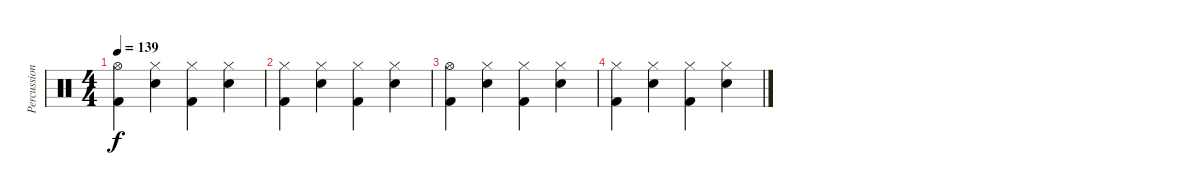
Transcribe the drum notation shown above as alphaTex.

\track ("Percussion" "Percussion") {instrument percussion}
\staff {score}
\articulation defaults
\ts (4 4)
\tempo 139
\clef neutral
\ks c
("Hi-Hat (open)" "Kick (hit) 2").4{dy f} ("Hi-Hat (closed)" "Electric Snare (hit)").4 ("Hi-Hat (closed)" "Kick (hit) 2").4 ("Hi-Hat (closed)" "Electric Snare (hit)").4 |
("Hi-Hat (closed)" "Kick (hit) 2").4 ("Hi-Hat (closed)" "Electric Snare (hit)").4 ("Hi-Hat (closed)" "Kick (hit) 2").4 ("Hi-Hat (closed)" "Electric Snare (hit)").4 |
("Hi-Hat (open)" "Kick (hit) 2").4 ("Hi-Hat (closed)" "Electric Snare (hit)").4 ("Hi-Hat (closed)" "Kick (hit) 2").4 ("Hi-Hat (closed)" "Electric Snare (hit)").4 |
("Hi-Hat (closed)" "Kick (hit) 2").4 ("Hi-Hat (closed)" "Electric Snare (hit)").4 ("Hi-Hat (closed)" "Kick (hit) 2").4 ("Hi-Hat (closed)" "Electric Snare (hit)").4
